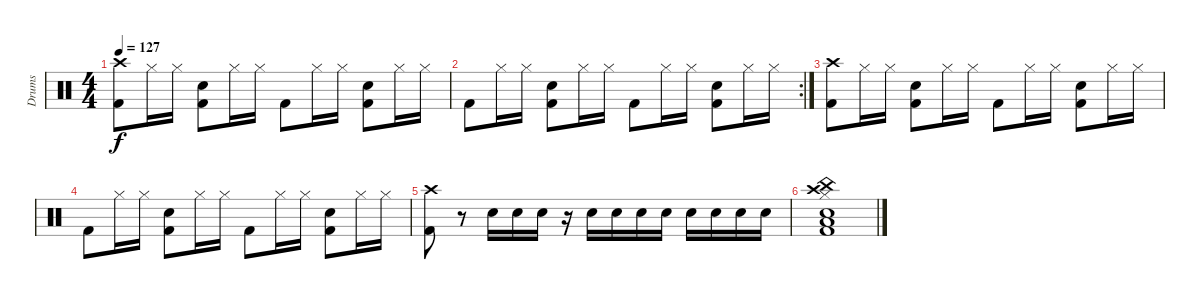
\track ("Drums" "Drums") {instrument percussion}
\staff {score}
\articulation defaults
\ts (4 4)
\tempo 127
\clef neutral
\ks c
("Crash high (hit)" "Kick (hit) 2").8{dy f} "Hi-Hat (closed)".16 "Hi-Hat (closed)".16 ("Kick (hit) 2" "Snare (hit) 2").8 "Hi-Hat (closed)".16 "Hi-Hat (closed)".16 "Kick (hit) 2".8 "Hi-Hat (closed)".16 "Hi-Hat (closed)".16 ("Kick (hit) 2" "Snare (hit) 2").8 "Hi-Hat (closed)".16 "Hi-Hat (closed)".16 |
\rc 2 "Kick (hit) 2".8 "Hi-Hat (closed)".16 "Hi-Hat (closed)".16
("Kick (hit) 2" "Snare (hit) 2").8 "Hi-Hat (closed)".16 "Hi-Hat (closed)".16 "Kick (hit) 2".8 "Hi-Hat (closed)".16 "Hi-Hat (closed)".16 ("Kick (hit) 2" "Snare (hit) 2").8 "Hi-Hat (closed)".16 "Hi-Hat (closed)".16 |
("Crash high (hit)" "Kick (hit) 2").8 "Hi-Hat (closed)".16 "Hi-Hat (closed)".16 ("Kick (hit) 2" "Snare (hit) 2").8 "Hi-Hat (closed)".16 "Hi-Hat (closed)".16 "Kick (hit) 2".8 "Hi-Hat (closed)".16 "Hi-Hat (closed)".16 ("Kick (hit) 2" "Snare (hit) 2").8 "Hi-Hat (closed)".16 "Hi-Hat (closed)".16 |
"Kick (hit) 2".8 "Hi-Hat (closed)".16 "Hi-Hat (closed)".16 ("Kick (hit) 2" "Snare (hit) 2").8 "Hi-Hat (closed)".16 "Hi-Hat (closed)".16 "Kick (hit) 2".8 "Hi-Hat (closed)".16 "Hi-Hat (closed)".16 ("Kick (hit) 2" "Snare (hit) 2").8 "Hi-Hat (closed)".16 "Hi-Hat (closed)".16 |
("Crash high (hit)" "Kick (hit) 2").8 r.8 "Snare (hit) 2".16 "Snare (hit) 2".16 "Snare (hit) 2".16 r.16 "Snare (hit) 2".16 "Snare (hit) 2".16 "Snare (hit) 2".16 "Snare (hit) 2".16 "Snare (hit) 2".16 "Snare (hit) 2".16 "Snare (hit) 2".16 "Snare (hit) 2".16 |
("Kick (hit) 2" "China (hit)" "Crash high (hit)" "Hi-Hat (closed)" "Snare (hit) 2" "Low Floor Tom (hit)").1
